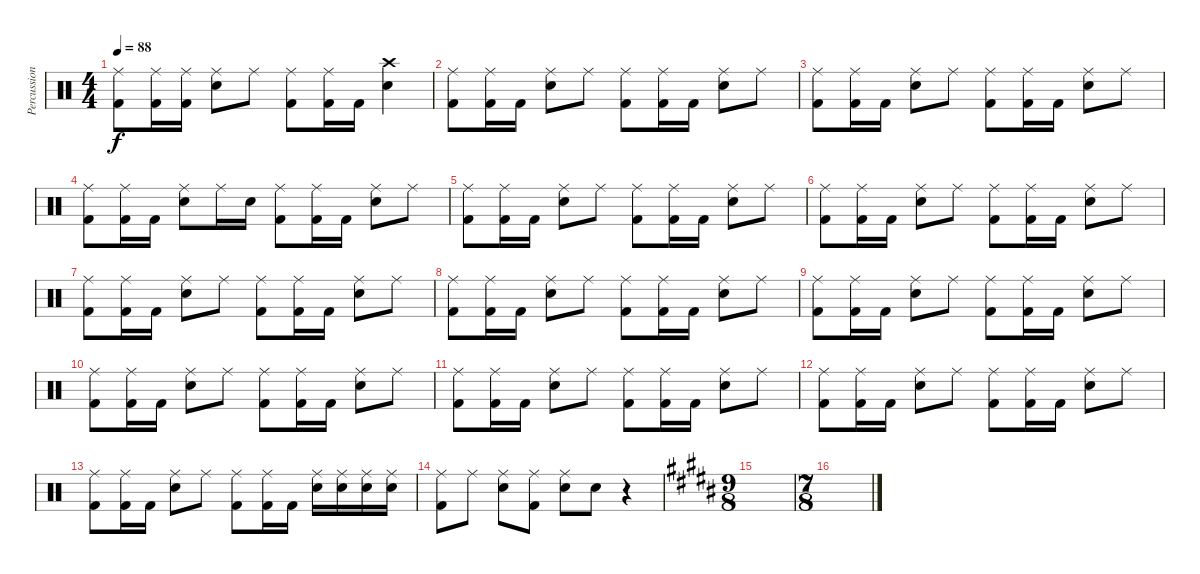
\track ("Percussion" "Percussion") {instrument percussion}
\staff {score}
\articulation defaults
\ts (4 4)
\tempo 88
\clef neutral
\ks aminor
("Ride (middle)" "Kick (hit) 2").8{dy f} ("Ride (middle)" "Kick (hit) 2").16 ("Ride (middle)" "Kick (hit) 2").16 ("Ride (middle)" "Snare (hit) 2").8 "Ride (middle)".8 ("Ride (middle)" "Kick (hit) 2").8 ("Ride (middle)" "Kick (hit) 2").16 "Kick (hit) 2".16 ("Crash high (hit)" "Snare (hit) 2").4 |
("Ride (middle)" "Kick (hit) 2").8 ("Ride (middle)" "Kick (hit) 2").16 "Kick (hit) 2".16 ("Ride (middle)" "Snare (hit) 2").8 "Ride (middle)".8 ("Ride (middle)" "Kick (hit) 2").8 ("Ride (middle)" "Kick (hit) 2").16 "Kick (hit) 2".16 ("Ride (middle)" "Snare (hit) 2").8 "Ride (middle)".8 |
("Ride (middle)" "Kick (hit) 2").8 ("Ride (middle)" "Kick (hit) 2").16 "Kick (hit) 2".16 ("Ride (middle)" "Snare (hit) 2").8 "Ride (middle)".8 ("Ride (middle)" "Kick (hit) 2").8 ("Ride (middle)" "Kick (hit) 2").16 "Kick (hit) 2".16 ("Ride (middle)" "Snare (hit) 2").8 "Ride (middle)".8 |
("Ride (middle)" "Kick (hit) 2").8 ("Ride (middle)" "Kick (hit) 2").16 "Kick (hit) 2".16 ("Ride (middle)" "Snare (hit) 2").8 "Ride (middle)".16 "Snare (hit) 2".16 ("Ride (middle)" "Kick (hit) 2").8 ("Ride (middle)" "Kick (hit) 2").16 "Kick (hit) 2".16 ("Ride (middle)" "Snare (hit) 2").8 "Ride (middle)".8 |
("Ride (middle)" "Kick (hit) 2").8 ("Ride (middle)" "Kick (hit) 2").16 "Kick (hit) 2".16 ("Ride (middle)" "Snare (hit) 2").8 "Ride (middle)".8 ("Ride (middle)" "Kick (hit) 2").8 ("Ride (middle)" "Kick (hit) 2").16 "Kick (hit) 2".16 ("Ride (middle)" "Snare (hit) 2").8 "Ride (middle)".8 |
("Ride (middle)" "Kick (hit) 2").8 ("Ride (middle)" "Kick (hit) 2").16 "Kick (hit) 2".16 ("Ride (middle)" "Snare (hit) 2").8 "Ride (middle)".8 ("Ride (middle)" "Kick (hit) 2").8 ("Ride (middle)" "Kick (hit) 2").16 "Kick (hit) 2".16 ("Ride (middle)" "Snare (hit) 2").8 "Ride (middle)".8 |
("Ride (middle)" "Kick (hit) 2").8 ("Ride (middle)" "Kick (hit) 2").16 "Kick (hit) 2".16 ("Ride (middle)" "Snare (hit) 2").8 "Ride (middle)".8 ("Ride (middle)" "Kick (hit) 2").8 ("Ride (middle)" "Kick (hit) 2").16 "Kick (hit) 2".16 ("Ride (middle)" "Snare (hit) 2").8 "Ride (middle)".8 |
("Ride (middle)" "Kick (hit) 2").8 ("Ride (middle)" "Kick (hit) 2").16 "Kick (hit) 2".16 ("Ride (middle)" "Snare (hit) 2").8 "Ride (middle)".8 ("Ride (middle)" "Kick (hit) 2").8 ("Ride (middle)" "Kick (hit) 2").16 "Kick (hit) 2".16 ("Ride (middle)" "Snare (hit) 2").8 "Ride (middle)".8 |
("Ride (middle)" "Kick (hit) 2").8 ("Ride (middle)" "Kick (hit) 2").16 "Kick (hit) 2".16 ("Ride (middle)" "Snare (hit) 2").8 "Ride (middle)".8 ("Ride (middle)" "Kick (hit) 2").8 ("Ride (middle)" "Kick (hit) 2").16 "Kick (hit) 2".16 ("Ride (middle)" "Snare (hit) 2").8 "Ride (middle)".8 |
("Ride (middle)" "Kick (hit) 2").8 ("Ride (middle)" "Kick (hit) 2").16 "Kick (hit) 2".16 ("Ride (middle)" "Snare (hit) 2").8 "Ride (middle)".8 ("Ride (middle)" "Kick (hit) 2").8 ("Ride (middle)" "Kick (hit) 2").16 "Kick (hit) 2".16 ("Ride (middle)" "Snare (hit) 2").8 "Ride (middle)".8 |
("Ride (middle)" "Kick (hit) 2").8 ("Ride (middle)" "Kick (hit) 2").16 "Kick (hit) 2".16 ("Ride (middle)" "Snare (hit) 2").8 "Ride (middle)".8 ("Ride (middle)" "Kick (hit) 2").8 ("Ride (middle)" "Kick (hit) 2").16 "Kick (hit) 2".16 ("Ride (middle)" "Snare (hit) 2").8 "Ride (middle)".8 |
("Ride (middle)" "Kick (hit) 2").8 ("Ride (middle)" "Kick (hit) 2").16 "Kick (hit) 2".16 ("Ride (middle)" "Snare (hit) 2").8 "Ride (middle)".8 ("Ride (middle)" "Kick (hit) 2").8 ("Ride (middle)" "Kick (hit) 2").16 "Kick (hit) 2".16 ("Ride (middle)" "Snare (hit) 2").8 "Ride (middle)".8 |
("Ride (middle)" "Kick (hit) 2").8 ("Ride (middle)" "Kick (hit) 2").16 "Kick (hit) 2".16 ("Ride (middle)" "Snare (hit) 2").8 "Ride (middle)".8 ("Ride (middle)" "Kick (hit) 2").8 ("Ride (middle)" "Kick (hit) 2").16 "Kick (hit) 2".16 ("Ride (middle)" "Snare (hit) 2").16 ("Ride (middle)" "Snare (hit) 2").16 ("Ride (middle)" "Snare (hit) 2").16 ("Ride (middle)" "Snare (hit) 2").16 |
("Ride (middle)" "Kick (hit) 2").8 "Ride (middle)".8 ("Ride (middle)" "Snare (hit) 2").8 ("Ride (middle)" "Kick (hit) 2").8 ("Ride (middle)" "Snare (hit) 2").8 "Snare (hit) 2".8 r.4 |
\ts (9 8)
\ks b
|
\ts (7 8)
